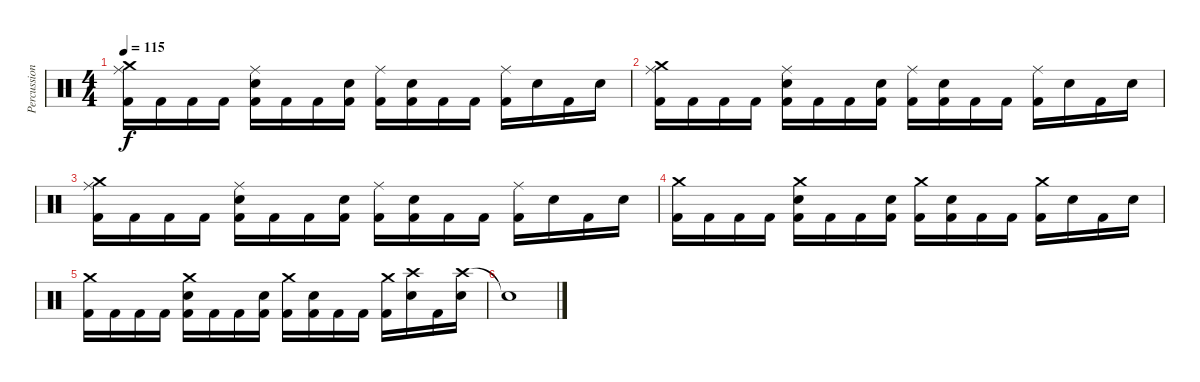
\track ("Percussion" "Percussion") {instrument percussion}
\staff {score}
\articulation defaults
\ts (4 4)
\tempo 115
\clef neutral
\ks c
("Crash medium (hit)" "Ride (middle)" "Kick (hit) 2").16{dy f} "Kick (hit) 2".16 "Kick (hit) 2".16 "Kick (hit) 2".16 ("Ride (middle)" "Electric Snare (hit)" "Kick (hit) 2").16 "Kick (hit) 2".16 "Kick (hit) 2".16 ("Electric Snare (hit)" "Kick (hit) 2").16 ("Ride (middle)" "Kick (hit) 2").16 ("Electric Snare (hit)" "Kick (hit) 2").16 "Kick (hit) 2".16 "Kick (hit) 2".16 ("Ride (middle)" "Kick (hit) 2").16 "Electric Snare (hit)".16 "Kick (hit) 2".16 "Electric Snare (hit)".16 |
("Crash medium (hit)" "Ride (middle)" "Kick (hit) 2").16 "Kick (hit) 2".16 "Kick (hit) 2".16 "Kick (hit) 2".16 ("Ride (middle)" "Electric Snare (hit)" "Kick (hit) 2").16 "Kick (hit) 2".16 "Kick (hit) 2".16 ("Electric Snare (hit)" "Kick (hit) 2").16 ("Ride (middle)" "Kick (hit) 2").16 ("Electric Snare (hit)" "Kick (hit) 2").16 "Kick (hit) 2".16 "Kick (hit) 2".16 ("Ride (middle)" "Kick (hit) 2").16 "Electric Snare (hit)".16 "Kick (hit) 2".16 "Electric Snare (hit)".16 |
("Crash medium (hit)" "Ride (middle)" "Kick (hit) 2").16 "Kick (hit) 2".16 "Kick (hit) 2".16 "Kick (hit) 2".16 ("Ride (middle)" "Electric Snare (hit)" "Kick (hit) 2").16 "Kick (hit) 2".16 "Kick (hit) 2".16 ("Electric Snare (hit)" "Kick (hit) 2").16 ("Ride (middle)" "Kick (hit) 2").16 ("Electric Snare (hit)" "Kick (hit) 2").16 "Kick (hit) 2".16 "Kick (hit) 2".16 ("Ride (middle)" "Kick (hit) 2").16 "Electric Snare (hit)".16 "Kick (hit) 2".16 "Electric Snare (hit)".16 |
("Crash medium (hit)" "Kick (hit) 2").16 "Kick (hit) 2".16 "Kick (hit) 2".16 "Kick (hit) 2".16 ("Crash medium (hit)" "Electric Snare (hit)" "Kick (hit) 2").16 "Kick (hit) 2".16 "Kick (hit) 2".16 ("Electric Snare (hit)" "Kick (hit) 2").16 ("Crash medium (hit)" "Kick (hit) 2").16 ("Electric Snare (hit)" "Kick (hit) 2").16 "Kick (hit) 2".16 "Kick (hit) 2".16 ("Crash medium (hit)" "Kick (hit) 2").16 "Electric Snare (hit)".16 "Kick (hit) 2".16 "Electric Snare (hit)".16 |
("Crash medium (hit)" "Kick (hit) 2").16 "Kick (hit) 2".16 "Kick (hit) 2".16 "Kick (hit) 2".16 ("Crash medium (hit)" "Electric Snare (hit)" "Kick (hit) 2").16 "Kick (hit) 2".16 "Kick (hit) 2".16 ("Electric Snare (hit)" "Kick (hit) 2").16 ("Crash medium (hit)" "Kick (hit) 2").16 ("Electric Snare (hit)" "Kick (hit) 2").16 "Kick (hit) 2".16 "Kick (hit) 2".16 ("Crash medium (hit)" "Kick (hit) 2").16 ("Crash high (hit)" "Electric Snare (hit)").16 "Kick (hit) 2".16 ("Crash high (hit)" "Electric Snare (hit)").16 |
"Snare (hit)"{t}.1
